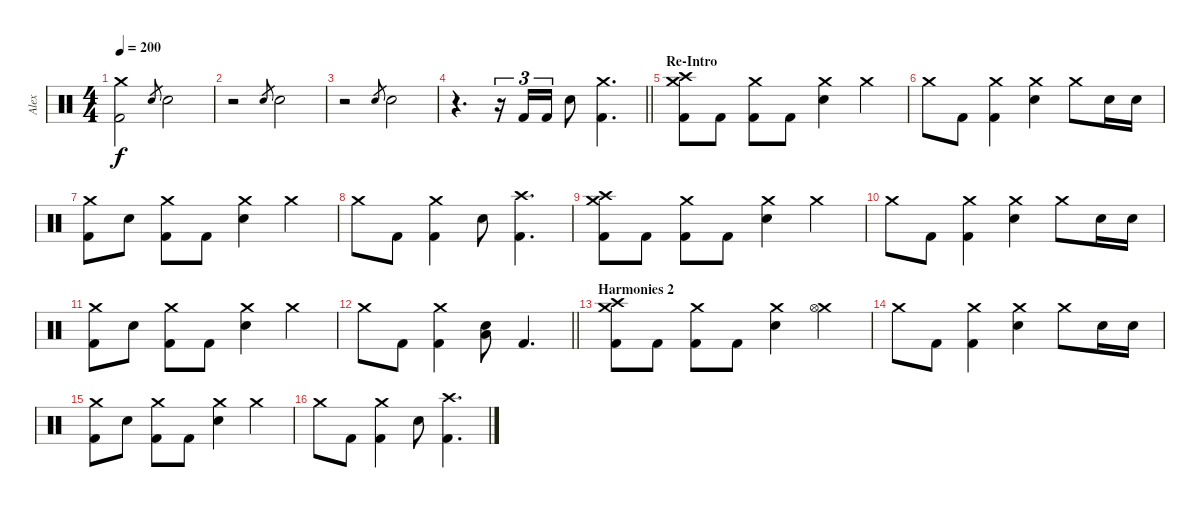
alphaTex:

\track ("Alex" "Alex") {instrument percussion}
\staff {score}
\articulation defaults
\ts (4 4)
\section ("" "")
\tempo 200
\clef neutral
\ks c
("Crash medium (hit)" "Kick (hit) 2").2{dy f} "Electric Snare (hit)".8{gr} "Electric Snare (hit)".2 |
r.2 "Electric Snare (hit)".8{gr} "Electric Snare (hit)".2 |
r.2 "Electric Snare (hit)".8{gr} "Electric Snare (hit)".2 |
\barLineRight lightlight
r.4{d} r.16{tu (3 2)} "Kick (hit) 2".16{tu (3 2)} "Kick (hit) 2".16{tu (3 2)} "Electric Snare (hit)".8 ("Crash medium (hit)" "Kick (hit) 2").4{d} |
\section ("" "Re-Intro")
("Crash medium (hit)" "Crash high (hit)" "Kick (hit) 2").8 "Kick (hit) 2".8 ("Crash medium (hit)" "Kick (hit) 2").8 "Kick (hit) 2".8 ("Crash medium (hit)" "Electric Snare (hit)").4 "Crash medium (hit)".4 |
"Crash medium (hit)".8 "Kick (hit) 2".8 ("Crash medium (hit)" "Kick (hit) 2").4 ("Crash medium (hit)" "Electric Snare (hit)").4 "Crash medium (hit)".8 "Electric Snare (hit)".16 "Electric Snare (hit)".16 |
("Crash medium (hit)" "Kick (hit) 2").8 "Electric Snare (hit)".8 ("Crash medium (hit)" "Kick (hit) 2").8 "Kick (hit) 2".8 ("Crash medium (hit)" "Electric Snare (hit)").4 "Crash medium (hit)".4 |
"Crash medium (hit)".8 "Kick (hit) 2".8 ("Crash medium (hit)" "Kick (hit) 2").4 "Electric Snare (hit)".8 ("Crash high (hit)" "Kick (hit) 2").4{d} |
("Crash medium (hit)" "Crash high (hit)" "Kick (hit) 2").8 "Kick (hit) 2".8 ("Crash medium (hit)" "Kick (hit) 2").8 "Kick (hit) 2".8 ("Crash medium (hit)" "Electric Snare (hit)").4 "Crash medium (hit)".4 |
"Crash medium (hit)".8 "Kick (hit) 2".8 ("Crash medium (hit)" "Kick (hit) 2").4 ("Crash medium (hit)" "Electric Snare (hit)").4 "Crash medium (hit)".8 "Electric Snare (hit)".16 "Electric Snare (hit)".16 |
("Crash medium (hit)" "Kick (hit) 2").8 "Electric Snare (hit)".8 ("Crash medium (hit)" "Kick (hit) 2").8 "Kick (hit) 2".8 ("Crash medium (hit)" "Electric Snare (hit)").4 "Crash medium (hit)".4 |
\barLineRight lightlight "Crash medium (hit)".8 "Kick (hit) 2".8
("Crash medium (hit)" "Kick (hit) 2").4 ("Low Floor Tom (hit)" "Electric Snare (hit)").8 "Kick (hit) 2".4{d} |
\section ("" "Harmonies 2")
("Crash medium (hit)" "Crash high (hit)" "Kick (hit) 2").8 "Kick (hit) 2".8 ("Crash medium (hit)" "Kick (hit) 2").8 "Kick (hit) 2".8 ("Crash medium (hit)" "Electric Snare (hit)").4 ("Crash medium (hit)" "Hi-Hat (open)").4 |
"Crash medium (hit)".8 "Kick (hit) 2".8 ("Crash medium (hit)" "Kick (hit) 2").4 ("Crash medium (hit)" "Electric Snare (hit)").4 "Crash medium (hit)".8 "Electric Snare (hit)".16 "Electric Snare (hit)".16 |
("Crash medium (hit)" "Kick (hit) 2").8 "Electric Snare (hit)".8 ("Crash medium (hit)" "Kick (hit) 2").8 "Kick (hit) 2".8 ("Crash medium (hit)" "Electric Snare (hit)").4 "Crash medium (hit)".4 |
"Crash medium (hit)".8 "Kick (hit) 2".8 ("Crash medium (hit)" "Kick (hit) 2").4 "Electric Snare (hit)".8 ("Crash high (hit)" "Kick (hit) 2").4{d}
